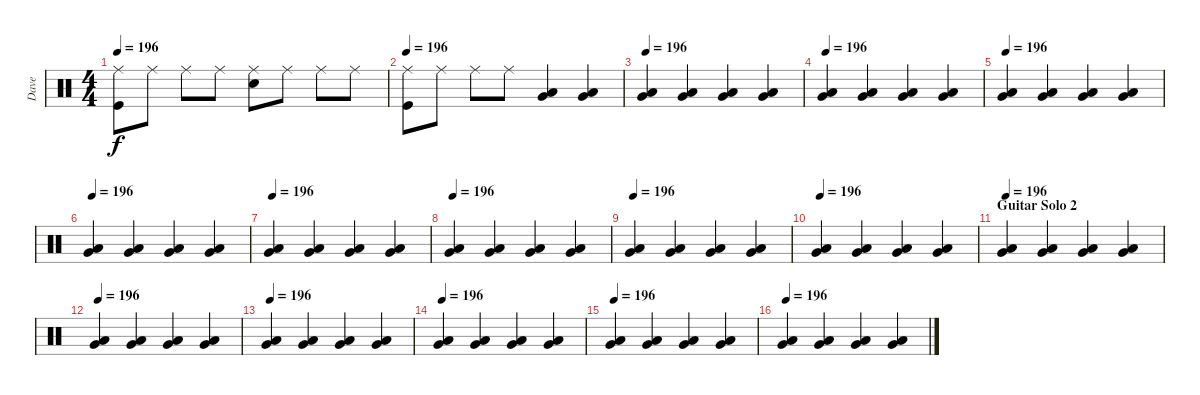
\track ("Dave" "Dave") {instrument percussion}
\staff {score}
\articulation defaults
\ts (4 4)
\tempo 196
\clef neutral
\ks c
("Ride (middle)" "Kick (hit)").8{dy f} "Ride (middle)".8 "Ride (middle)".8 "Ride (middle)".8 ("Ride (middle)" "Snare (hit) 2").8 "Ride (middle)".8 "Ride (middle)".8 "Ride (middle)".8 |
\tempo 196
("Ride (middle)" "Kick (hit)").8 "Ride (middle)".8 "Ride (middle)".8 "Ride (middle)".8 ("Low Floor Tom (hit)" "Very Low Tom (hit)").4 ("Low Floor Tom (hit)" "Very Low Tom (hit)").4 |
\tempo 220
\tempo 196
("Very Low Tom (hit)" "Low Floor Tom (hit)").4 ("Very Low Tom (hit)" "Low Floor Tom (hit)").4 ("Very Low Tom (hit)" "Low Floor Tom (hit)").4 ("Very Low Tom (hit)" "Low Floor Tom (hit)").4 |
\tempo 196
("Very Low Tom (hit)" "Low Floor Tom (hit)").4 ("Very Low Tom (hit)" "Low Floor Tom (hit)").4 ("Very Low Tom (hit)" "Low Floor Tom (hit)").4 ("Very Low Tom (hit)" "Low Floor Tom (hit)").4 |
\tempo 196
("Very Low Tom (hit)" "Low Floor Tom (hit)").4 ("Very Low Tom (hit)" "Low Floor Tom (hit)").4 ("Very Low Tom (hit)" "Low Floor Tom (hit)").4 ("Very Low Tom (hit)" "Low Floor Tom (hit)").4 |
\tempo 196
("Very Low Tom (hit)" "Low Floor Tom (hit)").4 ("Very Low Tom (hit)" "Low Floor Tom (hit)").4 ("Very Low Tom (hit)" "Low Floor Tom (hit)").4 ("Very Low Tom (hit)" "Low Floor Tom (hit)").4 |
\tempo 196
("Very Low Tom (hit)" "Low Floor Tom (hit)").4 ("Very Low Tom (hit)" "Low Floor Tom (hit)").4 ("Very Low Tom (hit)" "Low Floor Tom (hit)").4 ("Very Low Tom (hit)" "Low Floor Tom (hit)").4 |
\tempo 196
("Very Low Tom (hit)" "Low Floor Tom (hit)").4 ("Very Low Tom (hit)" "Low Floor Tom (hit)").4 ("Very Low Tom (hit)" "Low Floor Tom (hit)").4 ("Very Low Tom (hit)" "Low Floor Tom (hit)").4 |
\tempo 196
("Very Low Tom (hit)" "Low Floor Tom (hit)").4 ("Very Low Tom (hit)" "Low Floor Tom (hit)").4 ("Very Low Tom (hit)" "Low Floor Tom (hit)").4 ("Very Low Tom (hit)" "Low Floor Tom (hit)").4 |
\tempo 196
("Very Low Tom (hit)" "Low Floor Tom (hit)").4 ("Very Low Tom (hit)" "Low Floor Tom (hit)").4 ("Very Low Tom (hit)" "Low Floor Tom (hit)").4 ("Very Low Tom (hit)" "Low Floor Tom (hit)").4 |
\section ("" "Guitar Solo 2")
\tempo 196
("Very Low Tom (hit)" "Low Floor Tom (hit)").4 ("Very Low Tom (hit)" "Low Floor Tom (hit)").4 ("Very Low Tom (hit)" "Low Floor Tom (hit)").4 ("Very Low Tom (hit)" "Low Floor Tom (hit)").4 |
\tempo 196
("Very Low Tom (hit)" "Low Floor Tom (hit)").4 ("Very Low Tom (hit)" "Low Floor Tom (hit)").4 ("Very Low Tom (hit)" "Low Floor Tom (hit)").4 ("Very Low Tom (hit)" "Low Floor Tom (hit)").4 |
\tempo 196
("Very Low Tom (hit)" "Low Floor Tom (hit)").4 ("Very Low Tom (hit)" "Low Floor Tom (hit)").4 ("Very Low Tom (hit)" "Low Floor Tom (hit)").4 ("Very Low Tom (hit)" "Low Floor Tom (hit)").4 |
\tempo 196
("Very Low Tom (hit)" "Low Floor Tom (hit)").4 ("Very Low Tom (hit)" "Low Floor Tom (hit)").4 ("Very Low Tom (hit)" "Low Floor Tom (hit)").4 ("Very Low Tom (hit)" "Low Floor Tom (hit)").4 |
\tempo 196
("Very Low Tom (hit)" "Low Floor Tom (hit)").4 ("Very Low Tom (hit)" "Low Floor Tom (hit)").4 ("Very Low Tom (hit)" "Low Floor Tom (hit)").4 ("Very Low Tom (hit)" "Low Floor Tom (hit)").4 |
\tempo 196
("Very Low Tom (hit)" "Low Floor Tom (hit)").4 ("Very Low Tom (hit)" "Low Floor Tom (hit)").4 ("Very Low Tom (hit)" "Low Floor Tom (hit)").4 ("Very Low Tom (hit)" "Low Floor Tom (hit)").4
